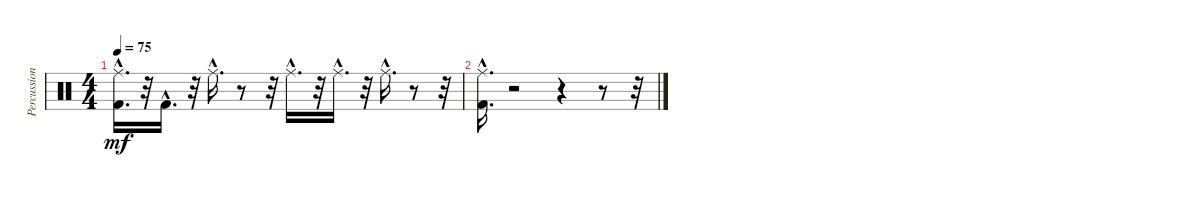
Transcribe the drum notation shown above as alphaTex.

\track ("Percussion" "Percussion") {instrument percussion}
\staff {score}
\articulation defaults
\ts (4 4)
\tempo 75
\clef neutral
\ks c
("Kick (hit) 2"{hac} "Ride (middle)"{hac}).16{d dy mf} r.32 "Kick (hit) 2"{hac}.16{d} r.32 "Ride (middle)"{hac}.16{d} r.8 r.32 "Ride (middle)"{hac}.16{d} r.32 "Ride (middle)"{hac}.16{d} r.32 "Ride (middle)"{hac}.16{d} r.8 r.32 |
("Ride (middle)"{hac} "Kick (hit) 2"{hac}).16{d} r.2 r.4 r.8 r.32
